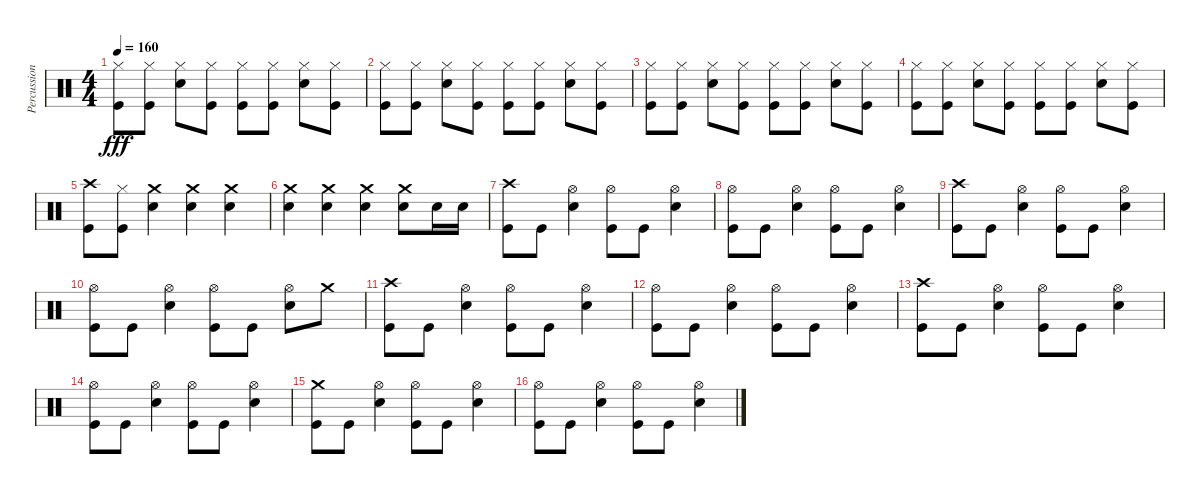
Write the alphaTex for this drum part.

\track ("Percussions" "Percussion") {instrument percussion}
\staff {score}
\articulation defaults
\ts (4 4)
\tempo 160
\clef neutral
\ks c
("Hi-Hat (closed)" "Kick (hit)").8{dy fff} ("Hi-Hat (closed)" "Kick (hit)").8 ("Hi-Hat (closed)" "Electric Snare (hit)").8 ("Hi-Hat (closed)" "Kick (hit)").8 ("Hi-Hat (closed)" "Kick (hit)").8 ("Hi-Hat (closed)" "Kick (hit)").8 ("Hi-Hat (closed)" "Electric Snare (hit)").8 ("Hi-Hat (closed)" "Kick (hit)").8 |
("Hi-Hat (closed)" "Kick (hit)").8 ("Hi-Hat (closed)" "Kick (hit)").8 ("Hi-Hat (closed)" "Electric Snare (hit)").8 ("Hi-Hat (closed)" "Kick (hit)").8 ("Hi-Hat (closed)" "Kick (hit)").8 ("Hi-Hat (closed)" "Kick (hit)").8 ("Hi-Hat (closed)" "Electric Snare (hit)").8 ("Hi-Hat (closed)" "Kick (hit)").8 |
("Hi-Hat (closed)" "Kick (hit)").8 ("Hi-Hat (closed)" "Kick (hit)").8 ("Hi-Hat (closed)" "Electric Snare (hit)").8 ("Hi-Hat (closed)" "Kick (hit)").8 ("Hi-Hat (closed)" "Kick (hit)").8 ("Hi-Hat (closed)" "Kick (hit)").8 ("Hi-Hat (closed)" "Electric Snare (hit)").8 ("Hi-Hat (closed)" "Kick (hit)").8 |
("Hi-Hat (closed)" "Kick (hit)").8 ("Hi-Hat (closed)" "Kick (hit)").8 ("Hi-Hat (closed)" "Electric Snare (hit)").8 ("Hi-Hat (closed)" "Kick (hit)").8 ("Hi-Hat (closed)" "Kick (hit)").8 ("Hi-Hat (closed)" "Kick (hit)").8 ("Hi-Hat (closed)" "Electric Snare (hit)").8 ("Hi-Hat (closed)" "Kick (hit)").8 |
("Crash high (hit)" "Kick (hit)").8 ("Hi-Hat (closed)" "Kick (hit)").8 ("Crash medium (hit)" "Electric Snare (hit)").4 ("Crash medium (hit)" "Electric Snare (hit)").4 ("Crash medium (hit)" "Electric Snare (hit)").4 |
("Crash medium (hit)" "Electric Snare (hit)").4 ("Crash medium (hit)" "Electric Snare (hit)").4 ("Crash medium (hit)" "Electric Snare (hit)").4 ("Crash medium (hit)" "Electric Snare (hit)").8 "Electric Snare (hit)".16 "Electric Snare (hit)".16 |
("Crash high (hit)" "Kick (hit)").8 "Kick (hit)".8 ("Hi-Hat (open)" "Electric Snare (hit)").4 ("Hi-Hat (open)" "Kick (hit)").8 "Kick (hit)".8 ("Hi-Hat (open)" "Electric Snare (hit)").4 |
("Hi-Hat (open)" "Kick (hit)").8 "Kick (hit)".8 ("Hi-Hat (open)" "Electric Snare (hit)").4 ("Hi-Hat (open)" "Kick (hit)").8 "Kick (hit)".8 ("Hi-Hat (open)" "Electric Snare (hit)").4 |
("Crash high (hit)" "Kick (hit)").8 "Kick (hit)".8 ("Hi-Hat (open)" "Electric Snare (hit)").4 ("Hi-Hat (open)" "Kick (hit)").8 "Kick (hit)".8 ("Hi-Hat (open)" "Electric Snare (hit)").4 |
("Hi-Hat (open)" "Kick (hit)").8 "Kick (hit)".8 ("Hi-Hat (open)" "Electric Snare (hit)").4 ("Hi-Hat (open)" "Kick (hit)").8 "Kick (hit)".8 ("Hi-Hat (open)" "Electric Snare (hit)").8 "Crash medium (hit)".8 |
("Crash high (hit)" "Kick (hit)").8 "Kick (hit)".8 ("Hi-Hat (open)" "Electric Snare (hit)").4 ("Hi-Hat (open)" "Kick (hit)").8 "Kick (hit)".8 ("Hi-Hat (open)" "Electric Snare (hit)").4 |
("Hi-Hat (open)" "Kick (hit)").8 "Kick (hit)".8 ("Hi-Hat (open)" "Electric Snare (hit)").4 ("Hi-Hat (open)" "Kick (hit)").8 "Kick (hit)".8 ("Hi-Hat (open)" "Electric Snare (hit)").4 |
("Crash high (hit)" "Kick (hit)").8 "Kick (hit)".8 ("Hi-Hat (open)" "Electric Snare (hit)").4 ("Hi-Hat (open)" "Kick (hit)").8 "Kick (hit)".8 ("Hi-Hat (open)" "Electric Snare (hit)").4 |
("Hi-Hat (open)" "Kick (hit)").8 "Kick (hit)".8 ("Hi-Hat (open)" "Electric Snare (hit)").4 ("Hi-Hat (open)" "Kick (hit)").8 "Kick (hit)".8 ("Hi-Hat (open)" "Electric Snare (hit)").4 |
("Crash medium (hit)" "Kick (hit)").8 "Kick (hit)".8 ("Hi-Hat (open)" "Electric Snare (hit)").4 ("Hi-Hat (open)" "Kick (hit)").8 "Kick (hit)".8 ("Hi-Hat (open)" "Electric Snare (hit)").4 |
("Hi-Hat (open)" "Kick (hit)").8 "Kick (hit)".8 ("Hi-Hat (open)" "Electric Snare (hit)").4 ("Hi-Hat (open)" "Kick (hit)").8 "Kick (hit)".8 ("Hi-Hat (open)" "Electric Snare (hit)").4
